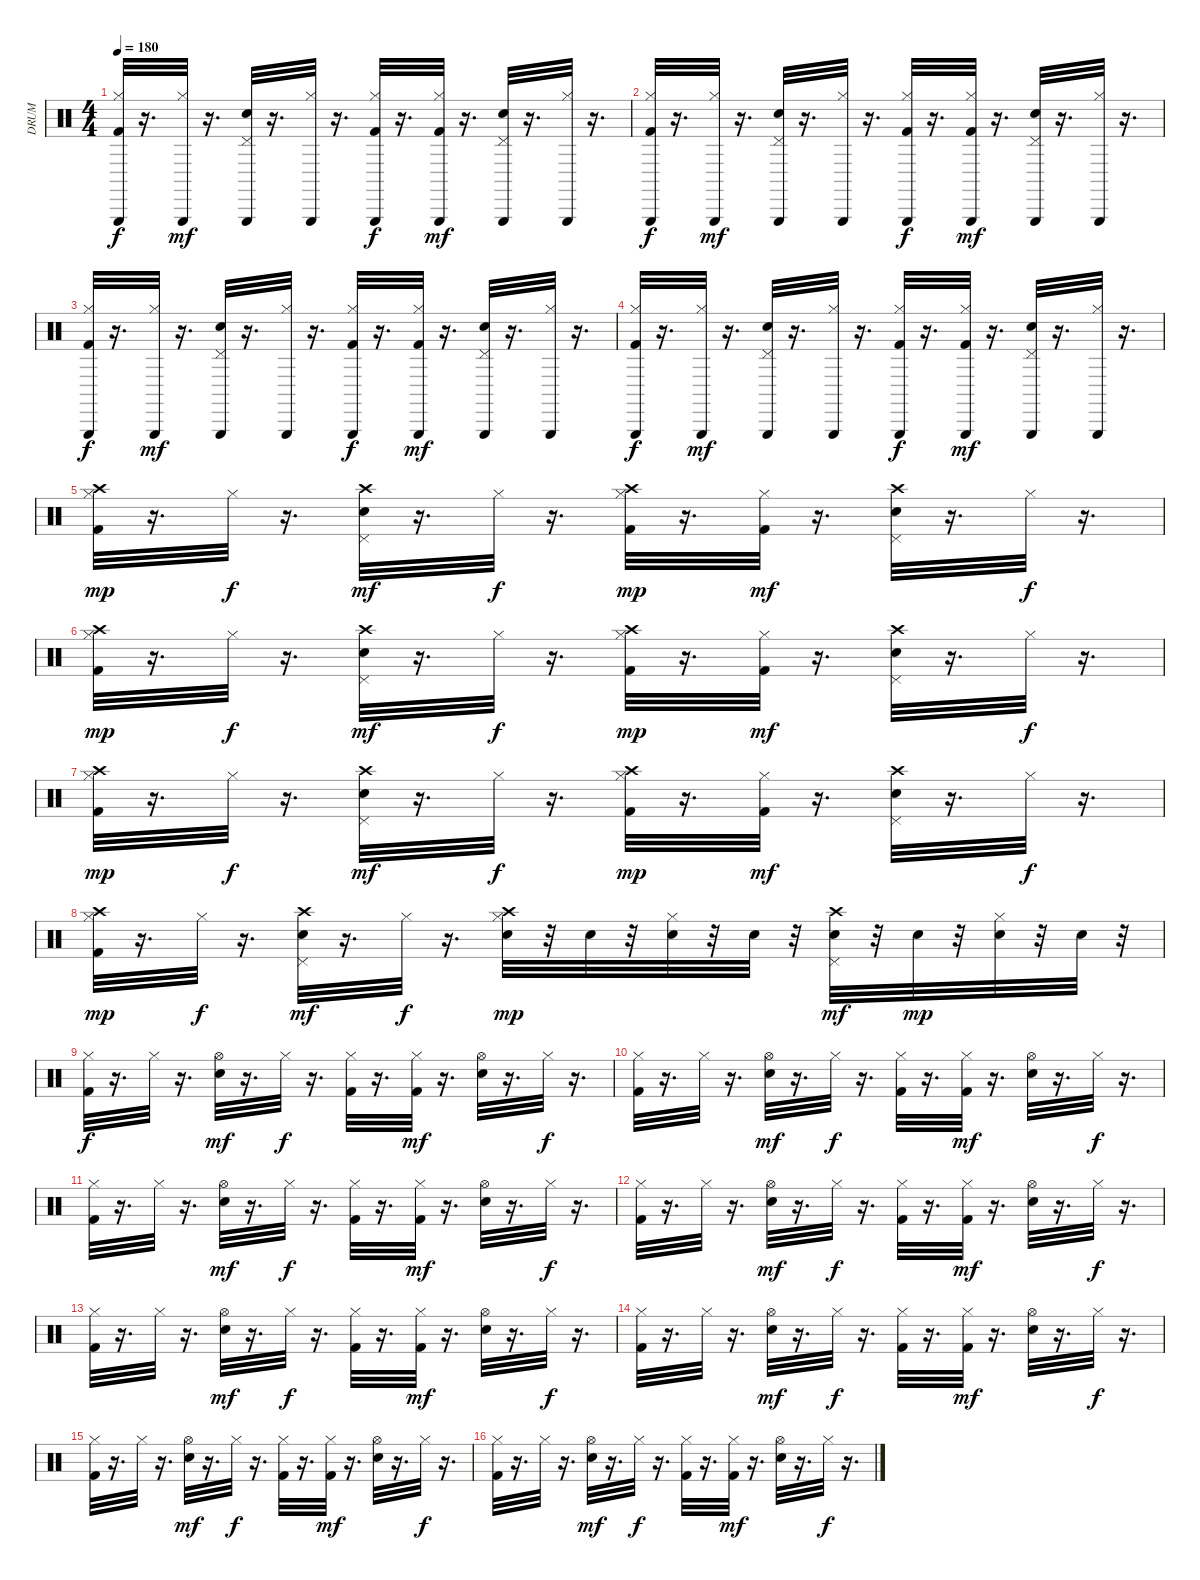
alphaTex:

\track ("DRUM" "DRUM") {instrument percussion}
\staff {score}
\articulation defaults
\ts (4 4)
\tempo 180
\clef neutral
\ks c
("Kick (hit) 2" "Hi-Hat (closed)" "Triangle (hit)").32{dy f} r.16{d} ("Triangle (hit)" "Hi-Hat (closed)").32{dy mf} r.16{d} ("Triangle (hit)" "Pedal Hi-Hat (hit)" "Snare (hit) 2").32 r.16{d} ("Triangle (hit)" "Hi-Hat (closed)").32 r.16{d} ("Triangle (hit)" "Kick (hit) 2" "Hi-Hat (closed)").32{dy f} r.16{d} ("Hi-Hat (closed)" "Kick (hit) 2" "Triangle (hit)").32{dy mf} r.16{d} ("Snare (hit) 2" "Pedal Hi-Hat (hit)" "Triangle (hit)").32 r.16{d} ("Hi-Hat (closed)" "Triangle (hit)").32 r.16{d} |
("Kick (hit) 2" "Triangle (hit)" "Hi-Hat (closed)").32{dy f} r.16{d} ("Triangle (hit)" "Hi-Hat (closed)").32{dy mf} r.16{d} ("Snare (hit) 2" "Pedal Hi-Hat (hit)" "Triangle (hit)").32 r.16{d} ("Hi-Hat (closed)" "Triangle (hit)").32 r.16{d} ("Triangle (hit)" "Kick (hit) 2" "Hi-Hat (closed)").32{dy f} r.16{d} ("Hi-Hat (closed)" "Kick (hit) 2" "Triangle (hit)").32{dy mf} r.16{d} ("Pedal Hi-Hat (hit)" "Snare (hit) 2" "Triangle (hit)").32 r.16{d} ("Hi-Hat (closed)" "Triangle (hit)").32 r.16{d} |
("Hi-Hat (closed)" "Triangle (hit)" "Kick (hit) 2").32{dy f} r.16{d} ("Hi-Hat (closed)" "Triangle (hit)").32{dy mf} r.16{d} ("Triangle (hit)" "Snare (hit) 2" "Pedal Hi-Hat (hit)").32 r.16{d} ("Hi-Hat (closed)" "Triangle (hit)").32 r.16{d} ("Triangle (hit)" "Kick (hit) 2" "Hi-Hat (closed)").32{dy f} r.16{d} ("Kick (hit) 2" "Hi-Hat (closed)" "Triangle (hit)").32{dy mf} r.16{d} ("Triangle (hit)" "Pedal Hi-Hat (hit)" "Snare (hit) 2").32 r.16{d} ("Hi-Hat (closed)" "Triangle (hit)").32 r.16{d} |
("Hi-Hat (closed)" "Triangle (hit)" "Kick (hit) 2").32{dy f} r.16{d} ("Triangle (hit)" "Hi-Hat (closed)").32{dy mf} r.16{d} ("Pedal Hi-Hat (hit)" "Snare (hit) 2" "Triangle (hit)").32 r.16{d} ("Hi-Hat (closed)" "Triangle (hit)").32 r.16{d} ("Hi-Hat (closed)" "Kick (hit) 2" "Triangle (hit)").32{dy f} r.16{d} ("Triangle (hit)" "Hi-Hat (closed)" "Kick (hit) 2").32{dy mf} r.16{d} ("Snare (hit) 2" "Pedal Hi-Hat (hit)" "Triangle (hit)").32 r.16{d} ("Hi-Hat (closed)" "Triangle (hit)").32 r.16{d} |
("Crash high (hit)" "Hi-Hat (closed)" "Kick (hit) 2").32{dy mp} r.16{d} "Hi-Hat (closed)".32{dy f} r.16{d} ("Crash high (hit)" "Snare (hit) 2" "Pedal Hi-Hat (hit)").32{dy mf} r.16{d} "Hi-Hat (closed)".32{dy f} r.16{d} ("Crash high (hit)" "Kick (hit) 2" "Hi-Hat (closed)").32{dy mp} r.16{d} ("Hi-Hat (closed)" "Kick (hit) 2").32{dy mf} r.16{d} ("Crash high (hit)" "Pedal Hi-Hat (hit)" "Snare (hit) 2").32 r.16{d} "Hi-Hat (closed)".32{dy f} r.16{d} |
("Crash high (hit)" "Hi-Hat (closed)" "Kick (hit) 2").32{dy mp} r.16{d} "Hi-Hat (closed)".32{dy f} r.16{d} ("Crash high (hit)" "Snare (hit) 2" "Pedal Hi-Hat (hit)").32{dy mf} r.16{d} "Hi-Hat (closed)".32{dy f} r.16{d} ("Crash high (hit)" "Kick (hit) 2" "Hi-Hat (closed)").32{dy mp} r.16{d} ("Hi-Hat (closed)" "Kick (hit) 2").32{dy mf} r.16{d} ("Crash high (hit)" "Pedal Hi-Hat (hit)" "Snare (hit) 2").32 r.16{d} "Hi-Hat (closed)".32{dy f} r.16{d} |
("Crash high (hit)" "Kick (hit) 2" "Hi-Hat (closed)").32{dy mp} r.16{d} "Hi-Hat (closed)".32{dy f} r.16{d} ("Crash high (hit)" "Snare (hit) 2" "Pedal Hi-Hat (hit)").32{dy mf} r.16{d} "Hi-Hat (closed)".32{dy f} r.16{d} ("Crash high (hit)" "Hi-Hat (closed)" "Kick (hit) 2").32{dy mp} r.16{d} ("Kick (hit) 2" "Hi-Hat (closed)").32{dy mf} r.16{d} ("Crash high (hit)" "Snare (hit) 2" "Pedal Hi-Hat (hit)").32 r.16{d} "Hi-Hat (closed)".32{dy f} r.16{d} |
("Crash high (hit)" "Hi-Hat (closed)" "Kick (hit) 2").32{dy mp} r.16{d} "Hi-Hat (closed)".32{dy f} r.16{d} ("Crash high (hit)" "Pedal Hi-Hat (hit)" "Snare (hit) 2").32{dy mf} r.16{d} "Hi-Hat (closed)".32{dy f} r.16{d} ("Crash high (hit)" "Snare (hit) 2" "Hi-Hat (closed)").32{dy mp} r.32 "Snare (hit) 2".32 r.32 ("Snare (hit) 2" "Hi-Hat (closed)").32 r.32 "Snare (hit) 2".32 r.32 ("Crash high (hit)" "Pedal Hi-Hat (hit)" "Snare (hit) 2").32{dy mf} r.32 "Snare (hit) 2".32{dy mp} r.32 ("Snare (hit) 2" "Hi-Hat (closed)").32 r.32 "Snare (hit) 2".32 r.32 |
("Hi-Hat (closed)" "Kick (hit) 2").32{dy f} r.16{d} "Hi-Hat (closed)".32 r.16{d} ("Hi-Hat (open)" "Snare (hit) 2").32{dy mf} r.16{d} "Hi-Hat (closed)".32{dy f} r.16{d} ("Hi-Hat (closed)" "Kick (hit) 2").32 r.16{d} ("Hi-Hat (closed)" "Kick (hit) 2").32{dy mf} r.16{d} ("Hi-Hat (open)" "Snare (hit) 2").32 r.16{d} "Hi-Hat (closed)".32{dy f} r.16{d} |
("Kick (hit) 2" "Hi-Hat (closed)").32 r.16{d} "Hi-Hat (closed)".32 r.16{d} ("Hi-Hat (open)" "Snare (hit) 2").32{dy mf} r.16{d} "Hi-Hat (closed)".32{dy f} r.16{d} ("Kick (hit) 2" "Hi-Hat (closed)").32 r.16{d} ("Hi-Hat (closed)" "Kick (hit) 2").32{dy mf} r.16{d} ("Snare (hit) 2" "Hi-Hat (open)").32 r.16{d} "Hi-Hat (closed)".32{dy f} r.16{d} |
("Hi-Hat (closed)" "Kick (hit) 2").32 r.16{d} "Hi-Hat (closed)".32 r.16{d} ("Hi-Hat (open)" "Snare (hit) 2").32{dy mf} r.16{d} "Hi-Hat (closed)".32{dy f} r.16{d} ("Kick (hit) 2" "Hi-Hat (closed)").32 r.16{d} ("Kick (hit) 2" "Hi-Hat (closed)").32{dy mf} r.16{d} ("Snare (hit) 2" "Hi-Hat (open)").32 r.16{d} "Hi-Hat (closed)".32{dy f} r.16{d} |
("Hi-Hat (closed)" "Kick (hit) 2").32 r.16{d} "Hi-Hat (closed)".32 r.16{d} ("Hi-Hat (open)" "Snare (hit) 2").32{dy mf} r.16{d} "Hi-Hat (closed)".32{dy f} r.16{d} ("Kick (hit) 2" "Hi-Hat (closed)").32 r.16{d} ("Hi-Hat (closed)" "Kick (hit) 2").32{dy mf} r.16{d} ("Hi-Hat (open)" "Snare (hit) 2").32 r.16{d} "Hi-Hat (closed)".32{dy f} r.16{d} |
("Kick (hit) 2" "Hi-Hat (closed)").32 r.16{d} "Hi-Hat (closed)".32 r.16{d} ("Snare (hit) 2" "Hi-Hat (open)").32{dy mf} r.16{d} "Hi-Hat (closed)".32{dy f} r.16{d} ("Kick (hit) 2" "Hi-Hat (closed)").32 r.16{d} ("Kick (hit) 2" "Hi-Hat (closed)").32{dy mf} r.16{d} ("Snare (hit) 2" "Hi-Hat (open)").32 r.16{d} "Hi-Hat (closed)".32{dy f} r.16{d} |
("Hi-Hat (closed)" "Kick (hit) 2").32 r.16{d} "Hi-Hat (closed)".32 r.16{d} ("Hi-Hat (open)" "Snare (hit) 2").32{dy mf} r.16{d} "Hi-Hat (closed)".32{dy f} r.16{d} ("Kick (hit) 2" "Hi-Hat (closed)").32 r.16{d} ("Kick (hit) 2" "Hi-Hat (closed)").32{dy mf} r.16{d} ("Hi-Hat (open)" "Snare (hit) 2").32 r.16{d} "Hi-Hat (closed)".32{dy f} r.16{d} |
("Hi-Hat (closed)" "Kick (hit) 2").32 r.16{d} "Hi-Hat (closed)".32 r.16{d} ("Hi-Hat (open)" "Snare (hit) 2").32{dy mf} r.16{d} "Hi-Hat (closed)".32{dy f} r.16{d} ("Hi-Hat (closed)" "Kick (hit) 2").32 r.16{d} ("Hi-Hat (closed)" "Kick (hit) 2").32{dy mf} r.16{d} ("Hi-Hat (open)" "Snare (hit) 2").32 r.16{d} "Hi-Hat (closed)".32{dy f} r.16{d} |
("Hi-Hat (closed)" "Kick (hit) 2").32 r.16{d} "Hi-Hat (closed)".32 r.16{d} ("Hi-Hat (open)" "Snare (hit) 2").32{dy mf} r.16{d} "Hi-Hat (closed)".32{dy f} r.16{d} ("Kick (hit) 2" "Hi-Hat (closed)").32 r.16{d} ("Kick (hit) 2" "Hi-Hat (closed)").32{dy mf} r.16{d} ("Snare (hit) 2" "Hi-Hat (open)").32 r.16{d} "Hi-Hat (closed)".32{dy f} r.16{d}
